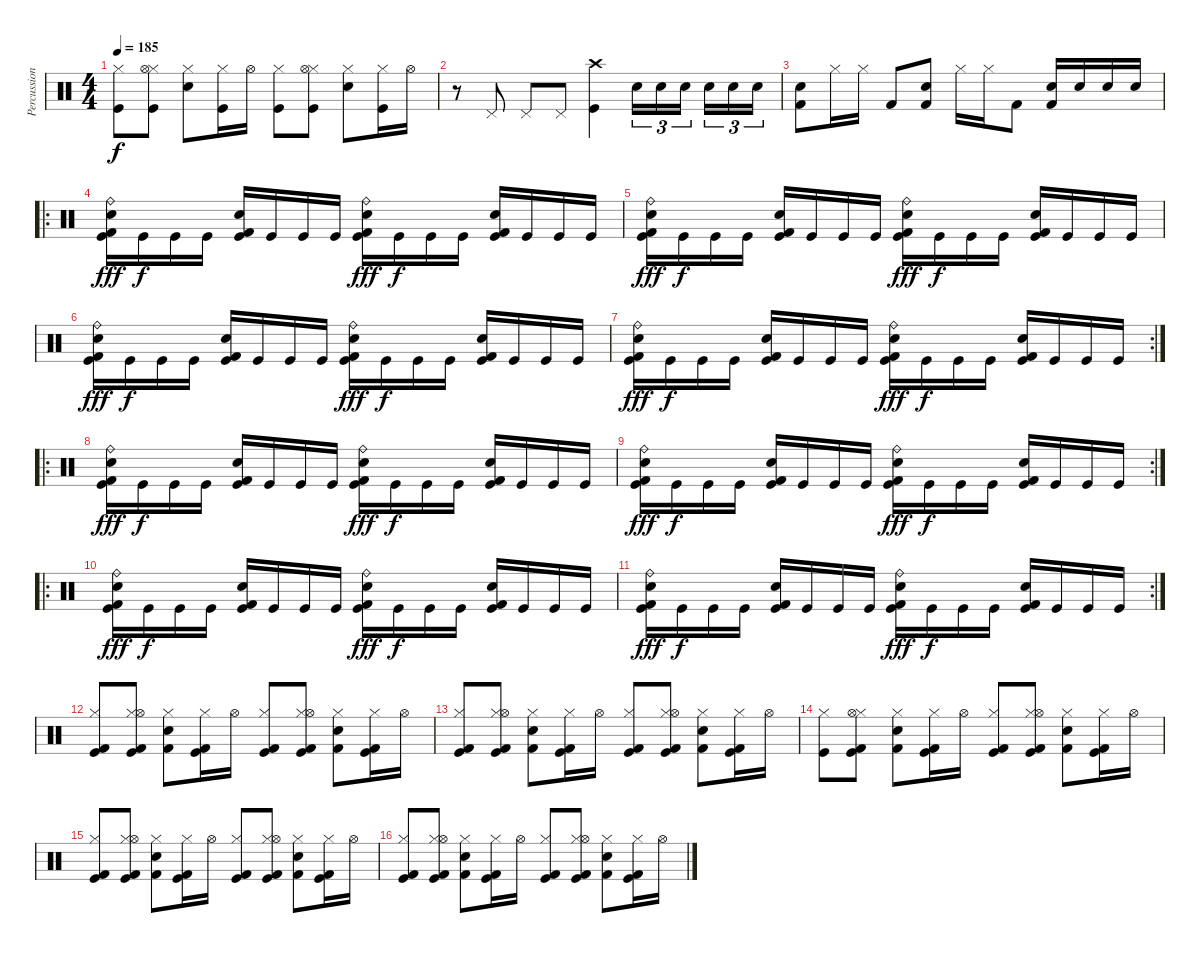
\track ("Percussion" "Percussion") {instrument percussion}
\staff {score}
\articulation defaults
\ts (4 4)
\tempo 185
\clef neutral
\ks c
("Kick (hit)" "Hi-Hat (closed)").8{dy f} ("Kick (hit)" "Hi-Hat (closed)" "Hi-Hat (open)").8 ("Snare (hit) 2" "Hi-Hat (closed)").8 ("Kick (hit)" "Hi-Hat (closed)").16 "Hi-Hat (open)".16 ("Kick (hit)" "Hi-Hat (closed)").8 ("Kick (hit)" "Hi-Hat (closed)" "Hi-Hat (open)").8 ("Snare (hit) 2" "Hi-Hat (closed)").8 ("Kick (hit)" "Hi-Hat (closed)").16 "Hi-Hat (open)".16 |
r.8 "Pedal Hi-Hat (hit)".8 "Pedal Hi-Hat (hit)".8 "Pedal Hi-Hat (hit)".8 ("Crash high (hit)" "Kick (hit)").4 "Electric Snare (hit)".16{tu (3 2)} "Electric Snare (hit)".16{tu (3 2)} "Electric Snare (hit)".16{tu (3 2)} "Electric Snare (hit)".16{tu (3 2)} "Electric Snare (hit)".16{tu (3 2)} "Electric Snare (hit)".16{tu (3 2)} |
("Snare (hit) 2" "Kick (hit) 2").8 "Hi-Hat (closed)".16 "Hi-Hat (closed)".16 "Kick (hit) 2".8 ("Snare (hit) 2" "Kick (hit) 2").8 "Hi-Hat (closed)".16 "Hi-Hat (closed)".16 "Kick (hit) 2".8 ("Snare (hit) 2" "Kick (hit) 2").16 "Electric Snare (hit)".16 "Electric Snare (hit)".16 "Electric Snare (hit)".16 |
\ro
("Kick (hit)" "Snare (hit) 2" "Kick (hit) 2" "Ride (bell)").16{dy fff} "Kick (hit)".16{dy f} "Kick (hit)".16 "Kick (hit)".16 ("Kick (hit)" "Snare (hit) 2" "Kick (hit) 2").16 "Kick (hit)".16 "Kick (hit)".16 "Kick (hit)".16 ("Kick (hit)" "Snare (hit) 2" "Kick (hit) 2" "Ride (bell)").16{dy fff} "Kick (hit)".16{dy f} "Kick (hit)".16 "Kick (hit)".16 ("Kick (hit)" "Snare (hit) 2" "Kick (hit) 2").16 "Kick (hit)".16 "Kick (hit)".16 "Kick (hit)".16 |
("Kick (hit)" "Snare (hit) 2" "Kick (hit) 2" "Ride (bell)").16{dy fff} "Kick (hit)".16{dy f} "Kick (hit)".16 "Kick (hit)".16 ("Kick (hit)" "Snare (hit) 2" "Kick (hit) 2").16 "Kick (hit)".16 "Kick (hit)".16 "Kick (hit)".16 ("Kick (hit)" "Snare (hit) 2" "Kick (hit) 2" "Ride (bell)").16{dy fff} "Kick (hit)".16{dy f} "Kick (hit)".16 "Kick (hit)".16 ("Kick (hit)" "Snare (hit) 2" "Kick (hit) 2").16 "Kick (hit)".16 "Kick (hit)".16 "Kick (hit)".16 |
("Kick (hit)" "Snare (hit) 2" "Kick (hit) 2" "Ride (bell)").16{dy fff} "Kick (hit)".16{dy f} "Kick (hit)".16 "Kick (hit)".16 ("Kick (hit)" "Snare (hit) 2" "Kick (hit) 2").16 "Kick (hit)".16 "Kick (hit)".16 "Kick (hit)".16 ("Kick (hit)" "Snare (hit) 2" "Kick (hit) 2" "Ride (bell)").16{dy fff} "Kick (hit)".16{dy f} "Kick (hit)".16 "Kick (hit)".16 ("Kick (hit)" "Snare (hit) 2" "Kick (hit) 2").16 "Kick (hit)".16 "Kick (hit)".16 "Kick (hit)".16 |
\rc 2
("Kick (hit)" "Snare (hit) 2" "Kick (hit) 2" "Ride (bell)").16{dy fff} "Kick (hit)".16{dy f} "Kick (hit)".16 "Kick (hit)".16 ("Kick (hit)" "Snare (hit) 2" "Kick (hit) 2").16 "Kick (hit)".16 "Kick (hit)".16 "Kick (hit)".16 ("Kick (hit)" "Snare (hit) 2" "Kick (hit) 2" "Ride (bell)").16{dy fff} "Kick (hit)".16{dy f} "Kick (hit)".16 "Kick (hit)".16 ("Kick (hit)" "Snare (hit) 2" "Kick (hit) 2").16 "Kick (hit)".16 "Kick (hit)".16 "Kick (hit)".16 |
\ro
("Kick (hit)" "Snare (hit) 2" "Kick (hit) 2" "Ride (bell)").16{dy fff} "Kick (hit)".16{dy f} "Kick (hit)".16 "Kick (hit)".16 ("Kick (hit)" "Snare (hit) 2" "Kick (hit) 2").16 "Kick (hit)".16 "Kick (hit)".16 "Kick (hit)".16 ("Kick (hit)" "Snare (hit) 2" "Kick (hit) 2" "Ride (bell)").16{dy fff} "Kick (hit)".16{dy f} "Kick (hit)".16 "Kick (hit)".16 ("Kick (hit)" "Snare (hit) 2" "Kick (hit) 2").16 "Kick (hit)".16 "Kick (hit)".16 "Kick (hit)".16 |
\rc 2
("Kick (hit)" "Snare (hit) 2" "Kick (hit) 2" "Ride (bell)").16{dy fff} "Kick (hit)".16{dy f} "Kick (hit)".16 "Kick (hit)".16 ("Kick (hit)" "Snare (hit) 2" "Kick (hit) 2").16 "Kick (hit)".16 "Kick (hit)".16 "Kick (hit)".16 ("Kick (hit)" "Snare (hit) 2" "Kick (hit) 2" "Ride (bell)").16{dy fff} "Kick (hit)".16{dy f} "Kick (hit)".16 "Kick (hit)".16 ("Kick (hit)" "Snare (hit) 2" "Kick (hit) 2").16 "Kick (hit)".16 "Kick (hit)".16 "Kick (hit)".16 |
\ro
("Kick (hit)" "Snare (hit) 2" "Kick (hit) 2" "Ride (bell)").16{dy fff} "Kick (hit)".16{dy f} "Kick (hit)".16 "Kick (hit)".16 ("Kick (hit)" "Snare (hit) 2" "Kick (hit) 2").16 "Kick (hit)".16 "Kick (hit)".16 "Kick (hit)".16 ("Kick (hit)" "Snare (hit) 2" "Kick (hit) 2" "Ride (bell)").16{dy fff} "Kick (hit)".16{dy f} "Kick (hit)".16 "Kick (hit)".16 ("Kick (hit)" "Snare (hit) 2" "Kick (hit) 2").16 "Kick (hit)".16 "Kick (hit)".16 "Kick (hit)".16 |
\rc 2
("Kick (hit)" "Snare (hit) 2" "Kick (hit) 2" "Ride (bell)").16{dy fff} "Kick (hit)".16{dy f} "Kick (hit)".16 "Kick (hit)".16 ("Kick (hit)" "Snare (hit) 2" "Kick (hit) 2").16 "Kick (hit)".16 "Kick (hit)".16 "Kick (hit)".16 ("Kick (hit)" "Snare (hit) 2" "Kick (hit) 2" "Ride (bell)").16{dy fff} "Kick (hit)".16{dy f} "Kick (hit)".16 "Kick (hit)".16 ("Kick (hit)" "Snare (hit) 2" "Kick (hit) 2").16 "Kick (hit)".16 "Kick (hit)".16 "Kick (hit)".16 |
("Kick (hit)" "Hi-Hat (closed)" "Kick (hit) 2").8 ("Kick (hit)" "Hi-Hat (closed)" "Hi-Hat (open)" "Kick (hit) 2").8 ("Snare (hit) 2" "Hi-Hat (closed)" "Kick (hit) 2").8 ("Kick (hit)" "Hi-Hat (closed)" "Kick (hit) 2").16 "Hi-Hat (open)".16 ("Kick (hit)" "Hi-Hat (closed)" "Kick (hit) 2").8 ("Kick (hit)" "Hi-Hat (closed)" "Hi-Hat (open)" "Kick (hit) 2").8 ("Snare (hit) 2" "Hi-Hat (closed)" "Kick (hit) 2").8 ("Kick (hit)" "Hi-Hat (closed)" "Kick (hit) 2").16 "Hi-Hat (open)".16 |
("Kick (hit)" "Hi-Hat (closed)" "Kick (hit) 2").8 ("Kick (hit)" "Hi-Hat (closed)" "Hi-Hat (open)" "Kick (hit) 2").8 ("Snare (hit) 2" "Hi-Hat (closed)" "Kick (hit) 2").8 ("Kick (hit)" "Hi-Hat (closed)" "Kick (hit) 2").16 "Hi-Hat (open)".16 ("Kick (hit)" "Hi-Hat (closed)" "Kick (hit) 2").8 ("Kick (hit)" "Hi-Hat (closed)" "Hi-Hat (open)" "Kick (hit) 2").8 ("Snare (hit) 2" "Hi-Hat (closed)" "Kick (hit) 2").8 ("Kick (hit)" "Hi-Hat (closed)" "Kick (hit) 2").16 "Hi-Hat (open)".16 |
("Kick (hit)" "Hi-Hat (closed)").8 ("Kick (hit)" "Hi-Hat (closed)" "Hi-Hat (open)" "Kick (hit) 2").8 ("Snare (hit) 2" "Hi-Hat (closed)" "Kick (hit) 2").8 ("Kick (hit)" "Hi-Hat (closed)" "Kick (hit) 2").16 "Hi-Hat (open)".16 ("Kick (hit)" "Hi-Hat (closed)" "Kick (hit) 2").8 ("Kick (hit)" "Hi-Hat (closed)" "Hi-Hat (open)" "Kick (hit) 2").8 ("Snare (hit) 2" "Hi-Hat (closed)" "Kick (hit) 2").8 ("Kick (hit)" "Hi-Hat (closed)" "Kick (hit) 2").16 "Hi-Hat (open)".16 |
("Kick (hit)" "Hi-Hat (closed)" "Kick (hit) 2").8 ("Kick (hit)" "Hi-Hat (closed)" "Hi-Hat (open)" "Kick (hit) 2").8 ("Snare (hit) 2" "Hi-Hat (closed)" "Kick (hit) 2").8 ("Kick (hit)" "Hi-Hat (closed)" "Kick (hit) 2").16 "Hi-Hat (open)".16 ("Kick (hit)" "Hi-Hat (closed)" "Kick (hit) 2").8 ("Kick (hit)" "Hi-Hat (closed)" "Hi-Hat (open)" "Kick (hit) 2").8 ("Snare (hit) 2" "Hi-Hat (closed)" "Kick (hit) 2").8 ("Kick (hit)" "Hi-Hat (closed)" "Kick (hit) 2").16 "Hi-Hat (open)".16 |
("Kick (hit)" "Hi-Hat (closed)" "Kick (hit) 2").8 ("Kick (hit)" "Hi-Hat (closed)" "Hi-Hat (open)" "Kick (hit) 2").8 ("Snare (hit) 2" "Hi-Hat (closed)" "Kick (hit) 2").8 ("Kick (hit)" "Hi-Hat (closed)" "Kick (hit) 2").16 "Hi-Hat (open)".16 ("Kick (hit)" "Hi-Hat (closed)" "Kick (hit) 2").8 ("Kick (hit)" "Hi-Hat (closed)" "Hi-Hat (open)" "Kick (hit) 2").8 ("Snare (hit) 2" "Hi-Hat (closed)" "Kick (hit) 2").8 ("Kick (hit)" "Hi-Hat (closed)" "Kick (hit) 2").16 "Hi-Hat (open)".16
